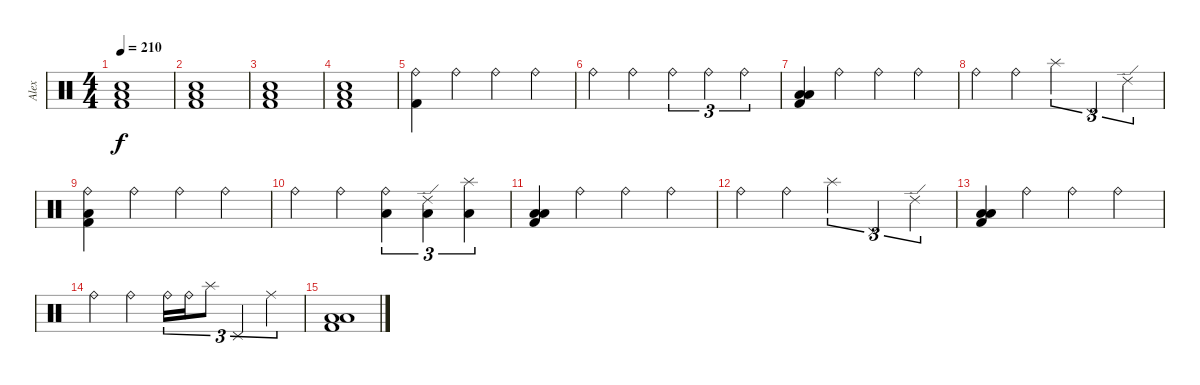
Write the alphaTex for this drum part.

\track ("Alex" "Alex") {instrument percussion}
\staff {score}
\articulation defaults
\ts (4 4)
\tempo 210
\clef neutral
\ks c
("Low Floor Tom (hit)" "Electric Snare (hit)" "Kick (hit) 2").1{dy f} |
("Low Floor Tom (hit)" "Electric Snare (hit)" "Kick (hit) 2").1 |
("Low Floor Tom (hit)" "Electric Snare (hit)" "Kick (hit) 2").1 |
("Low Floor Tom (hit)" "Electric Snare (hit)" "Kick (hit) 2").1 |
("Ride (bell)" "Kick (hit) 2").4 "Ride (bell)".4 "Ride (bell)".4 "Ride (bell)".4 |
"Ride (bell)".4 "Ride (bell)".4 "Ride (bell)".4{tu (3 2)} "Ride (bell)".4{tu (3 2)} "Ride (bell)".4{tu (3 2)} |
("Low Tom (hit)" "Low Floor Tom (hit)" "Kick (hit) 2").4 "Ride (bell)".4 "Ride (bell)".4 "Ride (bell)".4 |
"Ride (bell)".4 "Ride (bell)".4 "Splash (hit)".4{tu (3 2)} "Pedal Hi-Hat (hit)".4{tu (3 2)} "Ride (edge) 2".4{tu (3 2)} |
("Ride (bell)" "Low Floor Tom (hit)" "Kick (hit) 2").4 "Ride (bell)".4 "Ride (bell)".4 "Ride (bell)".4 |
"Ride (bell)".4 "Ride (bell)".4 ("Ride (bell)" "Low Floor Tom (hit)").4{tu (3 2)} ("Ride (edge) 2" "Low Floor Tom (hit)").4{tu (3 2)} ("Splash (hit)" "Low Floor Tom (hit)").4{tu (3 2)} |
("Low Tom (hit)" "Low Floor Tom (hit)" "Kick (hit) 2").4 "Ride (bell)".4 "Ride (bell)".4 "Ride (bell)".4 |
"Ride (bell)".4{volume 0} "Ride (bell)".4 "Splash (hit)".4{tu (3 2)} "Pedal Hi-Hat (hit)".4{tu (3 2)} "Ride (edge) 2".4{tu (3 2)} |
("Low Tom (hit)" "Low Floor Tom (hit)" "Kick (hit) 2").4 "Ride (bell)".4 "Ride (bell)".4 "Ride (bell)".4 |
"Ride (bell)".4 "Ride (bell)".4 "Ride (bell)".16{tu (3 2)} "Ride (bell)".16{tu (3 2)} "Splash (hit)".8{tu (3 2)} "Pedal Hi-Hat (hit)".4{tu (3 2)} "Ride (middle)".4{tu (3 2)} |
("Low Tom (hit)" "Low Floor Tom (hit)" "Kick (hit) 2").1
